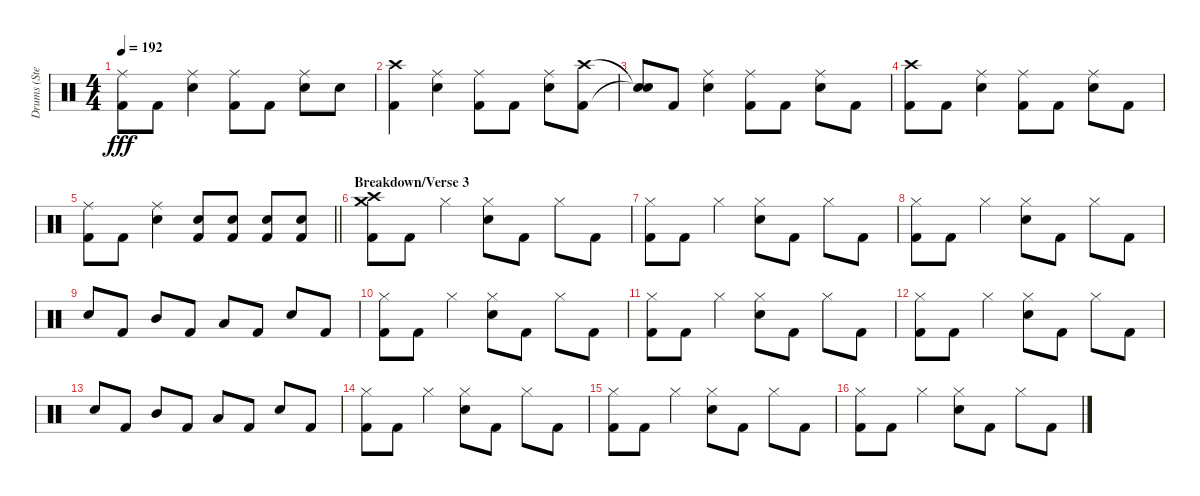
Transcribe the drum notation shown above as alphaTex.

\track ("Drums (Stevo32)" "Drums (Ste") {instrument percussion}
\staff {score}
\articulation defaults
\ts (4 4)
\tempo 192
\clef neutral
\ks c
("Ride (middle)" "Kick (hit) 2").8{dy fff} "Kick (hit) 2".8 ("Ride (middle)" "Electric Snare (hit)").4 ("Ride (middle)" "Kick (hit) 2").8 "Kick (hit) 2".8 ("Ride (middle)" "Electric Snare (hit)").8 "Electric Snare (hit)".8 |
("Crash high (hit)" "Kick (hit) 2").4 ("Ride (middle)" "Electric Snare (hit)").4 ("Ride (middle)" "Kick (hit) 2").8 "Kick (hit) 2".8 ("Ride (middle)" "Electric Snare (hit)").8 ("Crash high (hit)" "Kick (hit) 2").8 |
("Snare (hit)"{t} "Snare (hit)"{t}).8 "Kick (hit) 2".8 ("Ride (middle)" "Electric Snare (hit)").4 ("Ride (middle)" "Kick (hit) 2").8 "Kick (hit) 2".8 ("Ride (middle)" "Electric Snare (hit)").8 "Kick (hit) 2".8 |
("Crash high (hit)" "Kick (hit) 2").8 "Kick (hit) 2".8 ("Ride (middle)" "Electric Snare (hit)").4 ("Ride (middle)" "Kick (hit) 2").8 "Kick (hit) 2".8 ("Ride (middle)" "Electric Snare (hit)").8 "Kick (hit) 2".8 |
\barLineRight lightlight
("Ride (middle)" "Kick (hit) 2").8 "Kick (hit) 2".8 ("Ride (middle)" "Electric Snare (hit)").4 ("Electric Snare (hit)" "Kick (hit) 2").8 ("Electric Snare (hit)" "Kick (hit) 2").8 ("Electric Snare (hit)" "Kick (hit) 2").8 ("Electric Snare (hit)" "Kick (hit) 2").8 |
\section ("" "Breakdown/Verse 3")
("Crash high (hit)" "Crash medium (hit)" "Kick (hit) 2").8 "Kick (hit) 2".8 "Hi-Hat (closed)".4 ("Hi-Hat (closed)" "Electric Snare (hit)").8 "Kick (hit) 2".8 "Hi-Hat (closed)".8 "Kick (hit) 2".8 |
("Hi-Hat (closed)" "Kick (hit) 2").8 "Kick (hit) 2".8 "Hi-Hat (closed)".4 ("Hi-Hat (closed)" "Electric Snare (hit)").8 "Kick (hit) 2".8 "Hi-Hat (closed)".8 "Kick (hit) 2".8 |
("Hi-Hat (closed)" "Kick (hit) 2").8 "Kick (hit) 2".8 "Hi-Hat (closed)".4 ("Hi-Hat (closed)" "Electric Snare (hit)").8 "Kick (hit) 2".8 "Hi-Hat (closed)".8 "Kick (hit) 2".8 |
"Electric Snare (hit)".8 "Kick (hit) 2".8 "Mid Tom (hit)".8 "Kick (hit) 2".8 "Low Tom (hit)".8 "Kick (hit) 2".8 "Electric Snare (hit)".8 "Kick (hit) 2".8 |
("Hi-Hat (closed)" "Kick (hit) 2").8 "Kick (hit) 2".8 "Hi-Hat (closed)".4 ("Hi-Hat (closed)" "Electric Snare (hit)").8 "Kick (hit) 2".8 "Hi-Hat (closed)".8 "Kick (hit) 2".8 |
("Hi-Hat (closed)" "Kick (hit) 2").8 "Kick (hit) 2".8 "Hi-Hat (closed)".4 ("Hi-Hat (closed)" "Electric Snare (hit)").8 "Kick (hit) 2".8 "Hi-Hat (closed)".8 "Kick (hit) 2".8 |
("Hi-Hat (closed)" "Kick (hit) 2").8 "Kick (hit) 2".8 "Hi-Hat (closed)".4 ("Hi-Hat (closed)" "Electric Snare (hit)").8 "Kick (hit) 2".8 "Hi-Hat (closed)".8 "Kick (hit) 2".8 |
"Electric Snare (hit)".8 "Kick (hit) 2".8 "Mid Tom (hit)".8 "Kick (hit) 2".8 "Low Tom (hit)".8 "Kick (hit) 2".8 "Electric Snare (hit)".8 "Kick (hit) 2".8 |
("Hi-Hat (closed)" "Kick (hit) 2").8 "Kick (hit) 2".8 "Hi-Hat (closed)".4 ("Hi-Hat (closed)" "Electric Snare (hit)").8 "Kick (hit) 2".8 "Hi-Hat (closed)".8 "Kick (hit) 2".8 |
("Hi-Hat (closed)" "Kick (hit) 2").8 "Kick (hit) 2".8 "Hi-Hat (closed)".4 ("Hi-Hat (closed)" "Electric Snare (hit)").8 "Kick (hit) 2".8 "Hi-Hat (closed)".8 "Kick (hit) 2".8 |
("Hi-Hat (closed)" "Kick (hit) 2").8 "Kick (hit) 2".8 "Hi-Hat (closed)".4 ("Hi-Hat (closed)" "Electric Snare (hit)").8 "Kick (hit) 2".8 "Hi-Hat (closed)".8 "Kick (hit) 2".8
